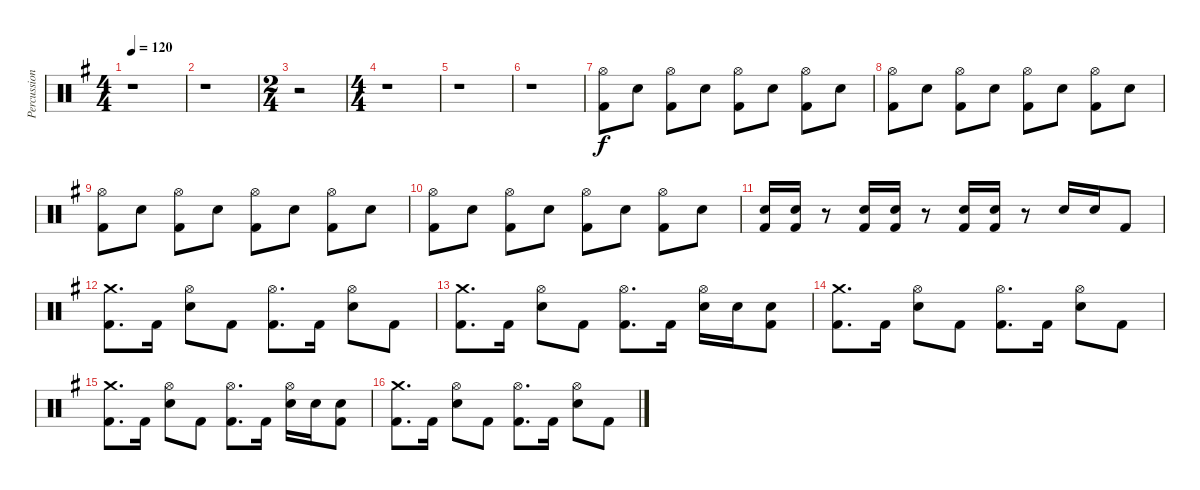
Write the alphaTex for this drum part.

\track ("Percussion" "Percussion") {instrument percussion}
\staff {score}
\articulation defaults
\ts (4 4)
\tempo 120
\clef neutral
\ks g
r.1{dy f} |
r.1 |
\ts (2 4)
r.2 |
\ts (4 4)
r.1 |
r.1 |
r.1 |
("Hi-Hat (open)" "Kick (hit) 2").8 "Snare (hit) 2".8 ("Hi-Hat (open)" "Kick (hit) 2").8 "Snare (hit) 2".8 ("Hi-Hat (open)" "Kick (hit) 2").8 "Snare (hit) 2".8 ("Hi-Hat (open)" "Kick (hit) 2").8 "Snare (hit) 2".8 |
("Hi-Hat (open)" "Kick (hit) 2").8 "Snare (hit) 2".8 ("Hi-Hat (open)" "Kick (hit) 2").8 "Snare (hit) 2".8 ("Hi-Hat (open)" "Kick (hit) 2").8 "Snare (hit) 2".8 ("Hi-Hat (open)" "Kick (hit) 2").8 "Snare (hit) 2".8 |
("Hi-Hat (open)" "Kick (hit) 2").8 "Snare (hit) 2".8 ("Hi-Hat (open)" "Kick (hit) 2").8 "Snare (hit) 2".8 ("Hi-Hat (open)" "Kick (hit) 2").8 "Snare (hit) 2".8 ("Hi-Hat (open)" "Kick (hit) 2").8 "Snare (hit) 2".8 |
("Hi-Hat (open)" "Kick (hit) 2").8 "Snare (hit) 2".8 ("Hi-Hat (open)" "Kick (hit) 2").8 "Snare (hit) 2".8 ("Hi-Hat (open)" "Kick (hit) 2").8 "Snare (hit) 2".8 ("Hi-Hat (open)" "Kick (hit) 2").8 "Snare (hit) 2".8 |
("Snare (hit) 2" "Kick (hit) 2").16 ("Snare (hit) 2" "Kick (hit) 2").16 r.8 ("Snare (hit) 2" "Kick (hit) 2").16 ("Snare (hit) 2" "Kick (hit) 2").16 r.8 ("Snare (hit) 2" "Kick (hit) 2").16 ("Snare (hit) 2" "Kick (hit) 2").16 r.8 "Snare (hit) 2".16 "Snare (hit) 2".16 "Kick (hit) 2".8 |
("Crash medium (hit)" "Kick (hit) 2").8{d} "Kick (hit) 2".16 ("Hi-Hat (open)" "Snare (hit) 2").8 "Kick (hit) 2".8 ("Hi-Hat (open)" "Kick (hit) 2").8{d} "Kick (hit) 2".16 ("Hi-Hat (open)" "Snare (hit) 2").8 "Kick (hit) 2".8 |
("Crash medium (hit)" "Kick (hit) 2").8{d} "Kick (hit) 2".16 ("Hi-Hat (open)" "Snare (hit) 2").8 "Kick (hit) 2".8 ("Hi-Hat (open)" "Kick (hit) 2").8{d} "Kick (hit) 2".16 ("Hi-Hat (open)" "Snare (hit) 2").16 "Snare (hit) 2".16 ("Snare (hit) 2" "Kick (hit) 2").8 |
("Crash medium (hit)" "Kick (hit) 2").8{d} "Kick (hit) 2".16 ("Hi-Hat (open)" "Snare (hit) 2").8 "Kick (hit) 2".8 ("Hi-Hat (open)" "Kick (hit) 2").8{d} "Kick (hit) 2".16 ("Hi-Hat (open)" "Snare (hit) 2").8 "Kick (hit) 2".8 |
("Crash medium (hit)" "Kick (hit) 2").8{d} "Kick (hit) 2".16 ("Hi-Hat (open)" "Snare (hit) 2").8 "Kick (hit) 2".8 ("Hi-Hat (open)" "Kick (hit) 2").8{d} "Kick (hit) 2".16 ("Hi-Hat (open)" "Snare (hit) 2").16 "Snare (hit) 2".16 ("Snare (hit) 2" "Kick (hit) 2").8 |
("Crash medium (hit)" "Kick (hit) 2").8{d} "Kick (hit) 2".16 ("Hi-Hat (open)" "Snare (hit) 2").8 "Kick (hit) 2".8 ("Hi-Hat (open)" "Kick (hit) 2").8{d} "Kick (hit) 2".16 ("Hi-Hat (open)" "Snare (hit) 2").8 "Kick (hit) 2".8
